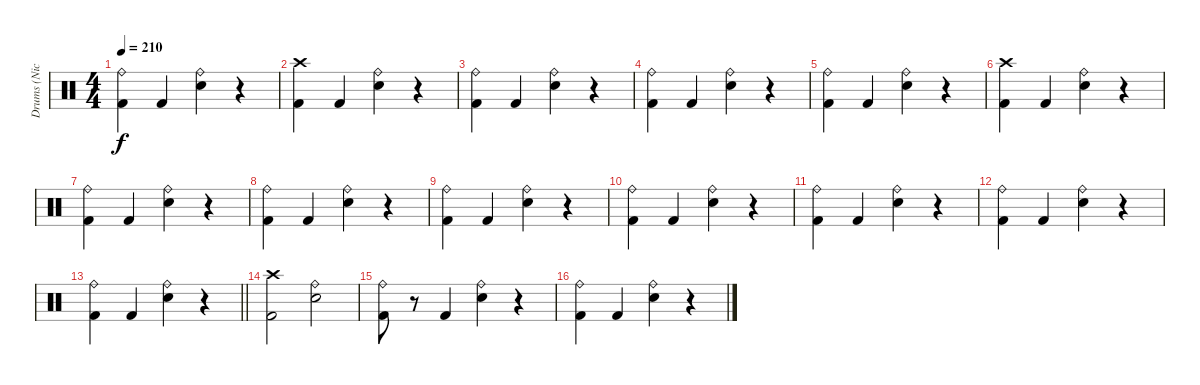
\track ("Drums (Nicko McBrain)" "Drums (Nic") {instrument percussion}
\staff {score}
\articulation defaults
\ts (4 4)
\tempo 210
\clef neutral
\ks c
("Ride (bell)" "Kick (hit) 2").4{dy f} "Kick (hit) 2".4 ("Ride (bell)" "Electric Snare (hit)").4 r.4 |
("Crash high (hit)" "Kick (hit) 2").4 "Kick (hit) 2".4 ("Ride (bell)" "Electric Snare (hit)").4 r.4 |
("Ride (bell)" "Kick (hit) 2").4 "Kick (hit) 2".4 ("Ride (bell)" "Electric Snare (hit)").4 r.4 |
("Ride (bell)" "Kick (hit) 2").4 "Kick (hit) 2".4 ("Ride (bell)" "Electric Snare (hit)").4 r.4 |
("Ride (bell)" "Kick (hit) 2").4 "Kick (hit) 2".4 ("Ride (bell)" "Electric Snare (hit)").4 r.4 |
("Crash high (hit)" "Kick (hit) 2").4 "Kick (hit) 2".4 ("Ride (bell)" "Electric Snare (hit)").4 r.4 |
("Ride (bell)" "Kick (hit) 2").4 "Kick (hit) 2".4 ("Ride (bell)" "Electric Snare (hit)").4 r.4 |
("Ride (bell)" "Kick (hit) 2").4 "Kick (hit) 2".4 ("Ride (bell)" "Electric Snare (hit)").4 r.4 |
("Ride (bell)" "Kick (hit) 2").4 "Kick (hit) 2".4 ("Ride (bell)" "Electric Snare (hit)").4 r.4 |
("Ride (bell)" "Kick (hit) 2").4 "Kick (hit) 2".4 ("Ride (bell)" "Electric Snare (hit)").4 r.4 |
("Ride (bell)" "Kick (hit) 2").4 "Kick (hit) 2".4 ("Ride (bell)" "Electric Snare (hit)").4 r.4 |
("Ride (bell)" "Kick (hit) 2").4 "Kick (hit) 2".4 ("Ride (bell)" "Electric Snare (hit)").4 r.4 |
\barLineRight lightlight
("Ride (bell)" "Kick (hit) 2").4 "Kick (hit) 2".4 ("Ride (bell)" "Electric Snare (hit)").4 r.4 |
("Crash high (hit)" "Kick (hit) 2").2 ("Ride (bell)" "Electric Snare (hit)").2 |
("Ride (bell)" "Kick (hit) 2").8 r.8 "Kick (hit) 2".4 ("Ride (bell)" "Electric Snare (hit)").4 r.4 |
("Ride (bell)" "Kick (hit) 2").4 "Kick (hit) 2".4 ("Ride (bell)" "Electric Snare (hit)").4 r.4
